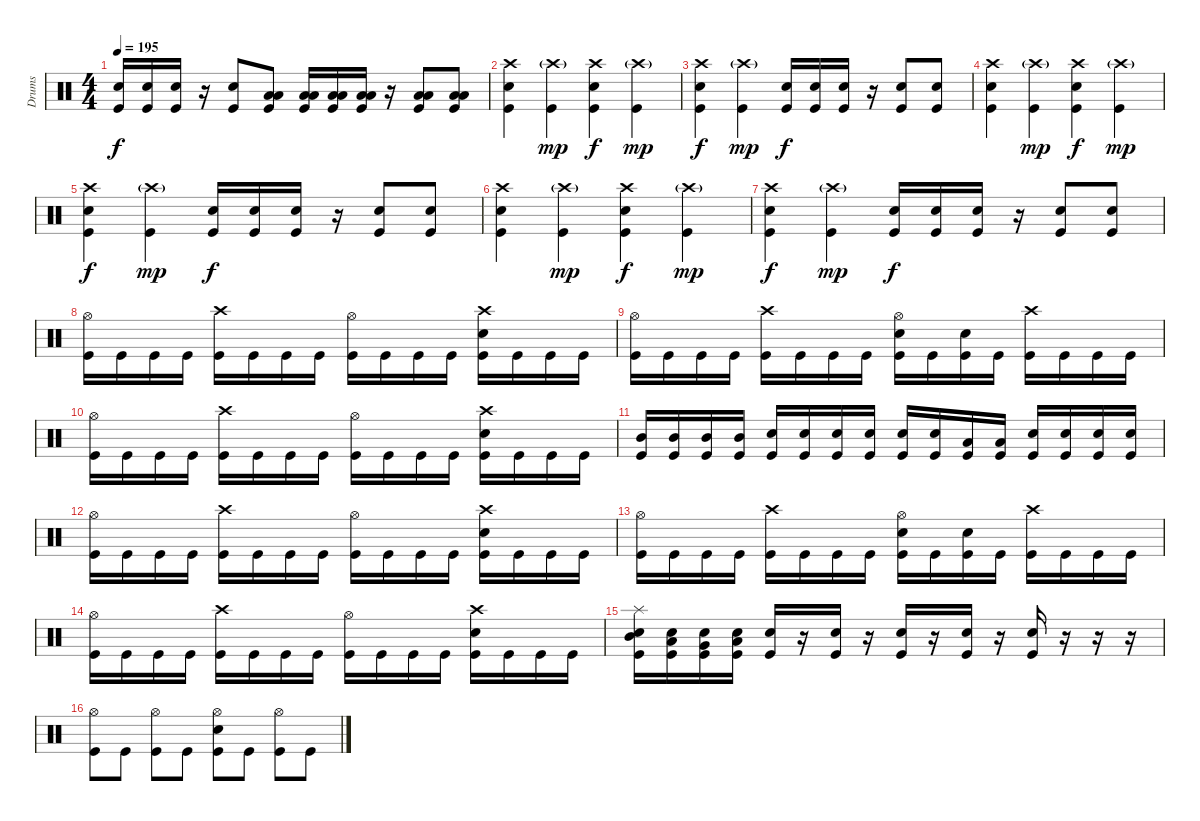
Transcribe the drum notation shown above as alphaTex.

\track ("Drums" "Drums") {instrument percussion}
\staff {score}
\articulation defaults
\ts (4 4)
\tempo 195
\clef neutral
\ks c
("Electric Snare (hit)" "Kick (hit)").16{dy f} ("Electric Snare (hit)" "Kick (hit)").16 ("Electric Snare (hit)" "Kick (hit)").16 r.16 ("Electric Snare (hit)" "Kick (hit)").8 ("Low Tom (hit)" "Low Floor Tom (hit)" "Kick (hit)").8 ("Low Tom (hit)" "Low Floor Tom (hit)" "Kick (hit)").16 ("Low Tom (hit)" "Low Floor Tom (hit)" "Kick (hit)").16 ("Low Tom (hit)" "Low Floor Tom (hit)" "Kick (hit)").16 r.16 ("Low Tom (hit)" "Low Floor Tom (hit)" "Kick (hit)").8 ("Low Tom (hit)" "Low Floor Tom (hit)" "Kick (hit)").8 |
("Crash high (hit)" "Electric Snare (hit)" "Kick (hit)").4 ("Crash high (hit)"{g} "Kick (hit)").4{dy mp} ("Crash high (hit)" "Electric Snare (hit)" "Kick (hit)").4{dy f} ("Crash high (hit)"{g} "Kick (hit)").4{dy mp} |
("Crash high (hit)" "Electric Snare (hit)" "Kick (hit)").4{dy f} ("Crash high (hit)"{g} "Kick (hit)").4{dy mp} ("Electric Snare (hit)" "Kick (hit)").16{dy f} ("Electric Snare (hit)" "Kick (hit)").16 ("Electric Snare (hit)" "Kick (hit)").16 r.16 ("Electric Snare (hit)" "Kick (hit)").8 ("Electric Snare (hit)" "Kick (hit)").8 |
("Crash high (hit)" "Electric Snare (hit)" "Kick (hit)").4 ("Crash high (hit)"{g} "Kick (hit)").4{dy mp} ("Crash high (hit)" "Electric Snare (hit)" "Kick (hit)").4{dy f} ("Crash high (hit)"{g} "Kick (hit)").4{dy mp} |
("Crash high (hit)" "Electric Snare (hit)" "Kick (hit)").4{dy f} ("Crash high (hit)"{g} "Kick (hit)").4{dy mp} ("Electric Snare (hit)" "Kick (hit)").16{dy f} ("Electric Snare (hit)" "Kick (hit)").16 ("Electric Snare (hit)" "Kick (hit)").16 r.16 ("Electric Snare (hit)" "Kick (hit)").8 ("Electric Snare (hit)" "Kick (hit)").8 |
("Crash high (hit)" "Electric Snare (hit)" "Kick (hit)").4 ("Crash high (hit)"{g} "Kick (hit)").4{dy mp} ("Crash high (hit)" "Electric Snare (hit)" "Kick (hit)").4{dy f} ("Crash high (hit)"{g} "Kick (hit)").4{dy mp} |
("Crash high (hit)" "Electric Snare (hit)" "Kick (hit)").4{dy f} ("Crash high (hit)"{g} "Kick (hit)").4{dy mp} ("Electric Snare (hit)" "Kick (hit)").16{dy f} ("Electric Snare (hit)" "Kick (hit)").16 ("Electric Snare (hit)" "Kick (hit)").16 r.16 ("Electric Snare (hit)" "Kick (hit)").8 ("Electric Snare (hit)" "Kick (hit)").8 |
("Hi-Hat (open)" "Kick (hit)").16 "Kick (hit)".16 "Kick (hit)".16 "Kick (hit)".16 ("Crash high (hit)" "Kick (hit)").16 "Kick (hit)".16 "Kick (hit)".16 "Kick (hit)".16 ("Hi-Hat (open)" "Kick (hit)").16 "Kick (hit)".16 "Kick (hit)".16 "Kick (hit)".16 ("Crash high (hit)" "Electric Snare (hit)" "Kick (hit)").16 "Kick (hit)".16 "Kick (hit)".16 "Kick (hit)".16 |
("Hi-Hat (open)" "Kick (hit)").16 "Kick (hit)".16 "Kick (hit)".16 "Kick (hit)".16 ("Crash high (hit)" "Kick (hit)").16 "Kick (hit)".16 "Kick (hit)".16 "Kick (hit)".16 ("Hi-Hat (open)" "Electric Snare (hit)" "Kick (hit)").16 "Kick (hit)".16 ("Electric Snare (hit)" "Kick (hit)").16 "Kick (hit)".16 ("Crash high (hit)" "Kick (hit)").16 "Kick (hit)".16 "Kick (hit)".16 "Kick (hit)".16 |
("Hi-Hat (open)" "Kick (hit)").16 "Kick (hit)".16 "Kick (hit)".16 "Kick (hit)".16 ("Crash high (hit)" "Kick (hit)").16 "Kick (hit)".16 "Kick (hit)".16 "Kick (hit)".16 ("Hi-Hat (open)" "Kick (hit)").16 "Kick (hit)".16 "Kick (hit)".16 "Kick (hit)".16 ("Crash high (hit)" "Electric Snare (hit)" "Kick (hit)").16 "Kick (hit)".16 "Kick (hit)".16 "Kick (hit)".16 |
("Mid Tom (hit)" "Kick (hit)").16 ("Mid Tom (hit)" "Kick (hit)").16 ("Mid Tom (hit)" "Kick (hit)").16 ("Mid Tom (hit)" "Kick (hit)").16 ("Electric Snare (hit)" "Kick (hit)").16 ("Electric Snare (hit)" "Kick (hit)").16 ("Electric Snare (hit)" "Kick (hit)").16 ("Electric Snare (hit)" "Kick (hit)").16 ("Electric Snare (hit)" "Kick (hit)").16 ("Electric Snare (hit)" "Kick (hit)").16 ("Low Tom (hit)" "Kick (hit)").16 ("Low Tom (hit)" "Kick (hit)").16 ("Electric Snare (hit)" "Kick (hit)").16 ("Electric Snare (hit)" "Kick (hit)").16 ("Electric Snare (hit)" "Kick (hit)").16 ("Electric Snare (hit)" "Kick (hit)").16 |
("Hi-Hat (open)" "Kick (hit)").16 "Kick (hit)".16 "Kick (hit)".16 "Kick (hit)".16 ("Crash high (hit)" "Kick (hit)").16 "Kick (hit)".16 "Kick (hit)".16 "Kick (hit)".16 ("Hi-Hat (open)" "Kick (hit)").16 "Kick (hit)".16 "Kick (hit)".16 "Kick (hit)".16 ("Crash high (hit)" "Electric Snare (hit)" "Kick (hit)").16 "Kick (hit)".16 "Kick (hit)".16 "Kick (hit)".16 |
("Hi-Hat (open)" "Kick (hit)").16 "Kick (hit)".16 "Kick (hit)".16 "Kick (hit)".16 ("Crash high (hit)" "Kick (hit)").16 "Kick (hit)".16 "Kick (hit)".16 "Kick (hit)".16 ("Hi-Hat (open)" "Electric Snare (hit)" "Kick (hit)").16 "Kick (hit)".16 ("Electric Snare (hit)" "Kick (hit)").16 "Kick (hit)".16 ("Crash high (hit)" "Kick (hit)").16 "Kick (hit)".16 "Kick (hit)".16 "Kick (hit)".16 |
("Hi-Hat (open)" "Kick (hit)").16 "Kick (hit)".16 "Kick (hit)".16 "Kick (hit)".16 ("Crash high (hit)" "Kick (hit)").16 "Kick (hit)".16 "Kick (hit)".16 "Kick (hit)".16 ("Hi-Hat (open)" "Kick (hit)").16 "Kick (hit)".16 "Kick (hit)".16 "Kick (hit)".16 ("Crash high (hit)" "Electric Snare (hit)" "Kick (hit)").16 "Kick (hit)".16 "Kick (hit)".16 "Kick (hit)".16 |
("Splash (hit)" "Mid Tom (hit)" "Electric Snare (hit)" "Kick (hit)").16 ("Low Tom (hit)" "Electric Snare (hit)" "Kick (hit)").16 ("Very Low Tom (hit)" "Electric Snare (hit)" "Kick (hit)").16 ("Low Floor Tom (hit)" "Electric Snare (hit)" "Kick (hit)").16 ("Electric Snare (hit)" "Kick (hit)").16 r.16 ("Electric Snare (hit)" "Kick (hit)").16 r.16 ("Electric Snare (hit)" "Kick (hit)").16 r.16 ("Electric Snare (hit)" "Kick (hit)").16 r.16 ("Electric Snare (hit)" "Kick (hit)").16 r.16 r.16 r.16 |
("Hi-Hat (open)" "Kick (hit)").8 "Kick (hit)".8 ("Hi-Hat (open)" "Kick (hit)").8 "Kick (hit)".8 ("Hi-Hat (open)" "Electric Snare (hit)" "Kick (hit)").8 "Kick (hit)".8 ("Hi-Hat (open)" "Kick (hit)").8 "Kick (hit)".8
